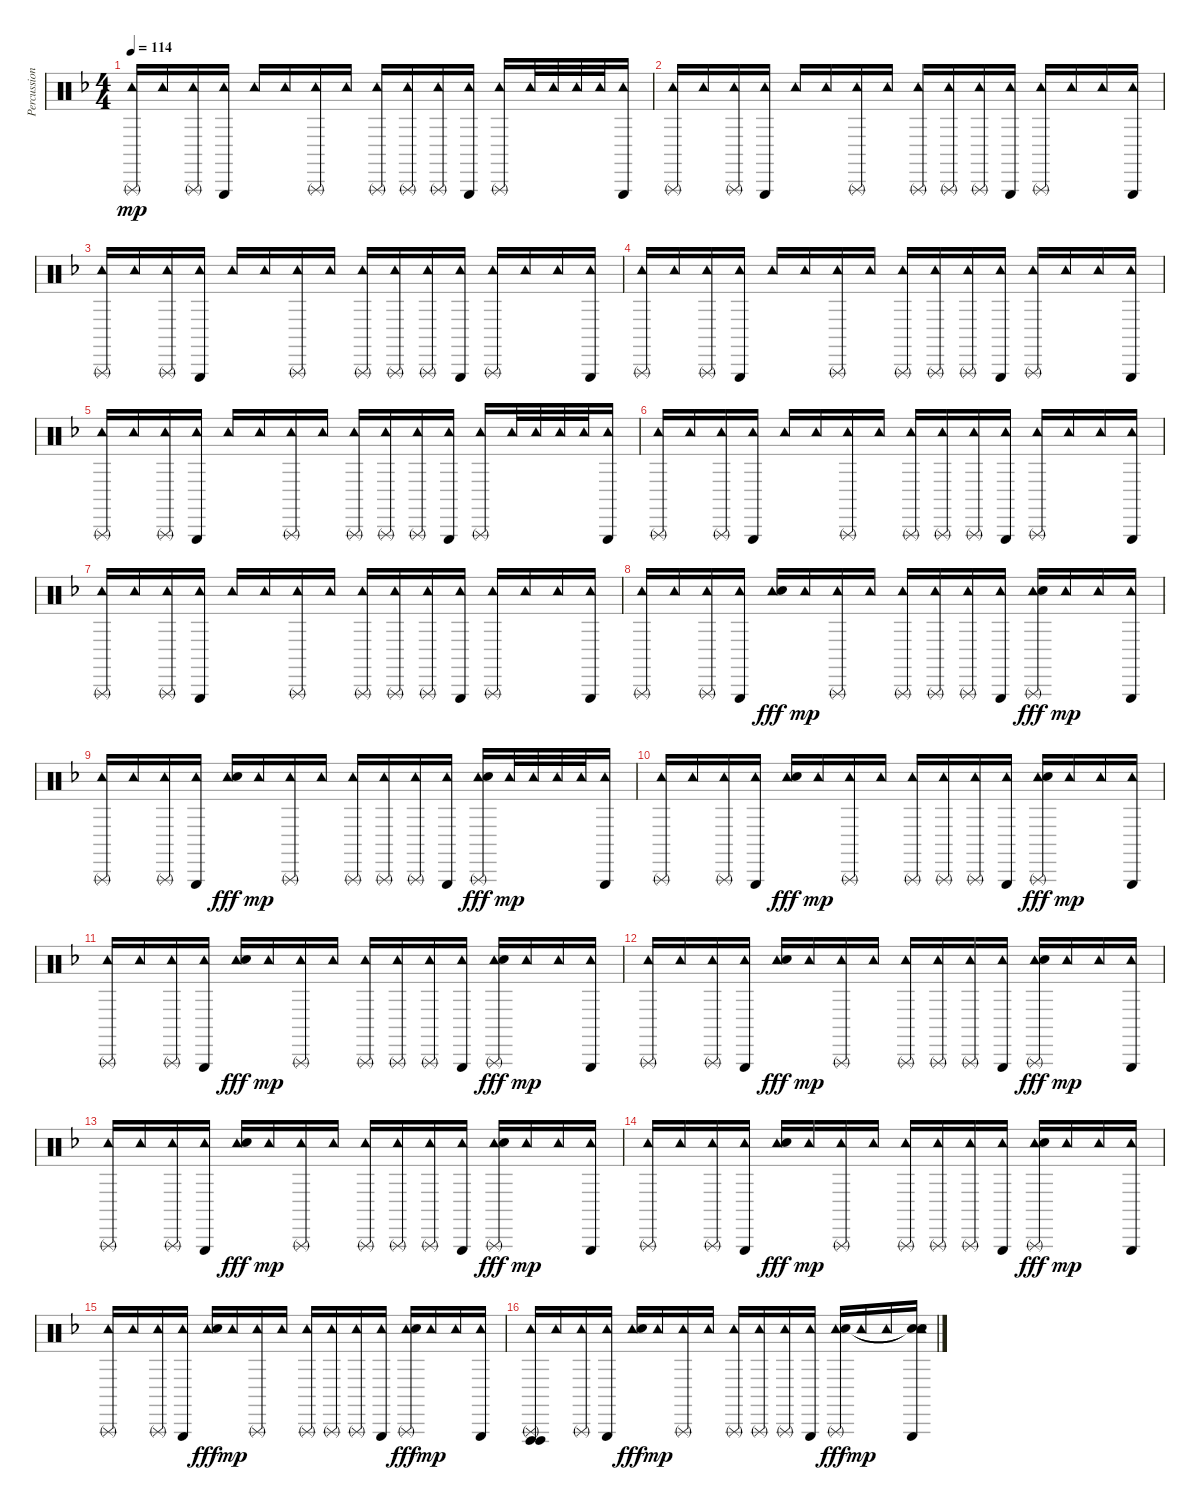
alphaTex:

\track ("Percussion" "Percussion") {instrument percussion}
\staff {score}
\articulation defaults
\ts (4 4)
\tempo 114
\clef neutral
\ks f
("Triangle (rnute)" "Tambourine (hit)").16{dy mp} "Tambourine (hit)".16 ("Triangle (rnute)" "Tambourine (hit)").16 ("Triangle (hit)" "Tambourine (hit)").16 "Tambourine (hit)".16 "Tambourine (hit)".16 ("Triangle (rnute)" "Tambourine (hit)").16 "Tambourine (hit)".16 ("Triangle (rnute)" "Tambourine (hit)").16 ("Triangle (rnute)" "Tambourine (hit)").16 ("Triangle (rnute)" "Tambourine (hit)").16 ("Triangle (hit)" "Tambourine (hit)").16 ("Triangle (rnute)" "Tambourine (hit)").16 "Tambourine (hit)".32 "Tambourine (hit)".32 "Tambourine (hit)".32 "Tambourine (hit)".32 ("Triangle (hit)" "Tambourine (hit)").16 |
("Triangle (rnute)" "Tambourine (hit)").16 "Tambourine (hit)".16 ("Triangle (rnute)" "Tambourine (hit)").16 ("Triangle (hit)" "Tambourine (hit)").16 "Tambourine (hit)".16 "Tambourine (hit)".16 ("Triangle (rnute)" "Tambourine (hit)").16 "Tambourine (hit)".16 ("Triangle (rnute)" "Tambourine (hit)").16 ("Triangle (rnute)" "Tambourine (hit)").16 ("Triangle (rnute)" "Tambourine (hit)").16 ("Triangle (hit)" "Tambourine (hit)").16 ("Triangle (rnute)" "Tambourine (hit)").16 "Tambourine (hit)".16 "Tambourine (hit)".16 ("Triangle (hit)" "Tambourine (hit)").16 |
("Triangle (rnute)" "Tambourine (hit)").16 "Tambourine (hit)".16 ("Triangle (rnute)" "Tambourine (hit)").16 ("Triangle (hit)" "Tambourine (hit)").16 "Tambourine (hit)".16 "Tambourine (hit)".16 ("Triangle (rnute)" "Tambourine (hit)").16 "Tambourine (hit)".16 ("Triangle (rnute)" "Tambourine (hit)").16 ("Triangle (rnute)" "Tambourine (hit)").16 ("Triangle (rnute)" "Tambourine (hit)").16 ("Triangle (hit)" "Tambourine (hit)").16 ("Triangle (rnute)" "Tambourine (hit)").16 "Tambourine (hit)".16 "Tambourine (hit)".16 ("Triangle (hit)" "Tambourine (hit)").16 |
("Triangle (rnute)" "Tambourine (hit)").16 "Tambourine (hit)".16 ("Triangle (rnute)" "Tambourine (hit)").16 ("Triangle (hit)" "Tambourine (hit)").16 "Tambourine (hit)".16 "Tambourine (hit)".16 ("Triangle (rnute)" "Tambourine (hit)").16 "Tambourine (hit)".16 ("Triangle (rnute)" "Tambourine (hit)").16 ("Triangle (rnute)" "Tambourine (hit)").16 ("Triangle (rnute)" "Tambourine (hit)").16 ("Triangle (hit)" "Tambourine (hit)").16 ("Triangle (rnute)" "Tambourine (hit)").16 "Tambourine (hit)".16 "Tambourine (hit)".16 ("Triangle (hit)" "Tambourine (hit)").16 |
("Triangle (rnute)" "Tambourine (hit)").16 "Tambourine (hit)".16 ("Triangle (rnute)" "Tambourine (hit)").16 ("Triangle (hit)" "Tambourine (hit)").16 "Tambourine (hit)".16 "Tambourine (hit)".16 ("Triangle (rnute)" "Tambourine (hit)").16 "Tambourine (hit)".16 ("Triangle (rnute)" "Tambourine (hit)").16 ("Triangle (rnute)" "Tambourine (hit)").16 ("Triangle (rnute)" "Tambourine (hit)").16 ("Triangle (hit)" "Tambourine (hit)").16 ("Triangle (rnute)" "Tambourine (hit)").16 "Tambourine (hit)".32 "Tambourine (hit)".32 "Tambourine (hit)".32 "Tambourine (hit)".32 ("Triangle (hit)" "Tambourine (hit)").16 |
("Triangle (rnute)" "Tambourine (hit)").16 "Tambourine (hit)".16 ("Triangle (rnute)" "Tambourine (hit)").16 ("Triangle (hit)" "Tambourine (hit)").16 "Tambourine (hit)".16 "Tambourine (hit)".16 ("Triangle (rnute)" "Tambourine (hit)").16 "Tambourine (hit)".16 ("Triangle (rnute)" "Tambourine (hit)").16 ("Triangle (rnute)" "Tambourine (hit)").16 ("Triangle (rnute)" "Tambourine (hit)").16 ("Triangle (hit)" "Tambourine (hit)").16 ("Triangle (rnute)" "Tambourine (hit)").16 "Tambourine (hit)".16 "Tambourine (hit)".16 ("Triangle (hit)" "Tambourine (hit)").16 |
("Triangle (rnute)" "Tambourine (hit)").16 "Tambourine (hit)".16 ("Triangle (rnute)" "Tambourine (hit)").16 ("Triangle (hit)" "Tambourine (hit)").16 "Tambourine (hit)".16 "Tambourine (hit)".16 ("Triangle (rnute)" "Tambourine (hit)").16 "Tambourine (hit)".16 ("Triangle (rnute)" "Tambourine (hit)").16 ("Triangle (rnute)" "Tambourine (hit)").16 ("Triangle (rnute)" "Tambourine (hit)").16 ("Triangle (hit)" "Tambourine (hit)").16 ("Triangle (rnute)" "Tambourine (hit)").16 "Tambourine (hit)".16 "Tambourine (hit)".16 ("Triangle (hit)" "Tambourine (hit)").16 |
("Triangle (rnute)" "Tambourine (hit)").16 "Tambourine (hit)".16 ("Triangle (rnute)" "Tambourine (hit)").16 ("Triangle (hit)" "Tambourine (hit)").16 ("Tambourine (hit)" "Hand Clap (hit)").16{dy fff} "Tambourine (hit)".16{dy mp} ("Triangle (rnute)" "Tambourine (hit)").16 "Tambourine (hit)".16 ("Triangle (rnute)" "Tambourine (hit)").16 ("Triangle (rnute)" "Tambourine (hit)").16 ("Triangle (rnute)" "Tambourine (hit)").16 ("Triangle (hit)" "Tambourine (hit)").16 ("Triangle (rnute)" "Tambourine (hit)" "Hand Clap (hit)").16{dy fff} "Tambourine (hit)".16{dy mp} "Tambourine (hit)".16 ("Triangle (hit)" "Tambourine (hit)").16 |
("Triangle (rnute)" "Tambourine (hit)").16 "Tambourine (hit)".16 ("Triangle (rnute)" "Tambourine (hit)").16 ("Triangle (hit)" "Tambourine (hit)").16 ("Tambourine (hit)" "Hand Clap (hit)").16{dy fff} "Tambourine (hit)".16{dy mp} ("Triangle (rnute)" "Tambourine (hit)").16 "Tambourine (hit)".16 ("Triangle (rnute)" "Tambourine (hit)").16 ("Triangle (rnute)" "Tambourine (hit)").16 ("Triangle (rnute)" "Tambourine (hit)").16 ("Triangle (hit)" "Tambourine (hit)").16 ("Triangle (rnute)" "Tambourine (hit)" "Hand Clap (hit)").16{dy fff} "Tambourine (hit)".32{dy mp} "Tambourine (hit)".32 "Tambourine (hit)".32 "Tambourine (hit)".32 ("Triangle (hit)" "Tambourine (hit)").16 |
("Triangle (rnute)" "Tambourine (hit)").16 "Tambourine (hit)".16 ("Triangle (rnute)" "Tambourine (hit)").16 ("Triangle (hit)" "Tambourine (hit)").16 ("Tambourine (hit)" "Hand Clap (hit)").16{dy fff} "Tambourine (hit)".16{dy mp} ("Triangle (rnute)" "Tambourine (hit)").16 "Tambourine (hit)".16 ("Triangle (rnute)" "Tambourine (hit)").16 ("Triangle (rnute)" "Tambourine (hit)").16 ("Triangle (rnute)" "Tambourine (hit)").16 ("Triangle (hit)" "Tambourine (hit)").16 ("Triangle (rnute)" "Tambourine (hit)" "Hand Clap (hit)").16{dy fff} "Tambourine (hit)".16{dy mp} "Tambourine (hit)".16 ("Triangle (hit)" "Tambourine (hit)").16 |
("Triangle (rnute)" "Tambourine (hit)").16 "Tambourine (hit)".16 ("Triangle (rnute)" "Tambourine (hit)").16 ("Triangle (hit)" "Tambourine (hit)").16 ("Tambourine (hit)" "Hand Clap (hit)").16{dy fff} "Tambourine (hit)".16{dy mp} ("Triangle (rnute)" "Tambourine (hit)").16 "Tambourine (hit)".16 ("Triangle (rnute)" "Tambourine (hit)").16 ("Triangle (rnute)" "Tambourine (hit)").16 ("Triangle (rnute)" "Tambourine (hit)").16 ("Triangle (hit)" "Tambourine (hit)").16 ("Triangle (rnute)" "Tambourine (hit)" "Hand Clap (hit)").16{dy fff} "Tambourine (hit)".16{dy mp} "Tambourine (hit)".16 ("Triangle (hit)" "Tambourine (hit)").16 |
("Triangle (rnute)" "Tambourine (hit)").16 "Tambourine (hit)".16 ("Triangle (rnute)" "Tambourine (hit)").16 ("Triangle (hit)" "Tambourine (hit)").16 ("Tambourine (hit)" "Hand Clap (hit)").16{dy fff} "Tambourine (hit)".16{dy mp} ("Triangle (rnute)" "Tambourine (hit)").16 "Tambourine (hit)".16 ("Triangle (rnute)" "Tambourine (hit)").16 ("Triangle (rnute)" "Tambourine (hit)").16 ("Triangle (rnute)" "Tambourine (hit)").16 ("Triangle (hit)" "Tambourine (hit)").16 ("Triangle (rnute)" "Tambourine (hit)" "Hand Clap (hit)").16{dy fff} "Tambourine (hit)".16{dy mp} "Tambourine (hit)".16 ("Triangle (hit)" "Tambourine (hit)").16 |
("Triangle (rnute)" "Tambourine (hit)").16 "Tambourine (hit)".16 ("Triangle (rnute)" "Tambourine (hit)").16 ("Triangle (hit)" "Tambourine (hit)").16 ("Tambourine (hit)" "Hand Clap (hit)").16{dy fff} "Tambourine (hit)".16{dy mp} ("Triangle (rnute)" "Tambourine (hit)").16 "Tambourine (hit)".16 ("Triangle (rnute)" "Tambourine (hit)").16 ("Triangle (rnute)" "Tambourine (hit)").16 ("Triangle (rnute)" "Tambourine (hit)").16 ("Triangle (hit)" "Tambourine (hit)").16 ("Triangle (rnute)" "Tambourine (hit)" "Hand Clap (hit)").16{dy fff} "Tambourine (hit)".16{dy mp} "Tambourine (hit)".16 ("Triangle (hit)" "Tambourine (hit)").16 |
("Triangle (rnute)" "Tambourine (hit)").16 "Tambourine (hit)".16 ("Triangle (rnute)" "Tambourine (hit)").16 ("Triangle (hit)" "Tambourine (hit)").16 ("Tambourine (hit)" "Hand Clap (hit)").16{dy fff} "Tambourine (hit)".16{dy mp} ("Triangle (rnute)" "Tambourine (hit)").16 "Tambourine (hit)".16 ("Triangle (rnute)" "Tambourine (hit)").16 ("Triangle (rnute)" "Tambourine (hit)").16 ("Triangle (rnute)" "Tambourine (hit)").16 ("Triangle (hit)" "Tambourine (hit)").16 ("Triangle (rnute)" "Tambourine (hit)" "Hand Clap (hit)").16{dy fff} "Tambourine (hit)".16{dy mp} "Tambourine (hit)".16 ("Triangle (hit)" "Tambourine (hit)").16 |
("Triangle (rnute)" "Tambourine (hit)").16 "Tambourine (hit)".16 ("Triangle (rnute)" "Tambourine (hit)").16 ("Triangle (hit)" "Tambourine (hit)").16 ("Tambourine (hit)" "Hand Clap (hit)").16{dy fff} "Tambourine (hit)".16{dy mp} ("Triangle (rnute)" "Tambourine (hit)").16 "Tambourine (hit)".16 ("Triangle (rnute)" "Tambourine (hit)").16 ("Triangle (rnute)" "Tambourine (hit)").16 ("Triangle (rnute)" "Tambourine (hit)").16 ("Triangle (hit)" "Tambourine (hit)").16 ("Triangle (rnute)" "Tambourine (hit)" "Hand Clap (hit)").16{dy fff} "Tambourine (hit)".16{dy mp} "Tambourine (hit)".16 ("Triangle (hit)" "Tambourine (hit)").16 |
("Triangle (rnute)" "Vibraslap (hit)" "Vibraslap (hit)" "Tambourine (hit)").16 "Tambourine (hit)".16 ("Triangle (rnute)" "Tambourine (hit)").16 ("Triangle (hit)" "Tambourine (hit)").16 ("Tambourine (hit)" "Hand Clap (hit)").16{dy fff} "Tambourine (hit)".16{dy mp} ("Triangle (rnute)" "Tambourine (hit)").16 "Tambourine (hit)".16 ("Triangle (rnute)" "Tambourine (hit)").16 ("Triangle (rnute)" "Tambourine (hit)").16 ("Triangle (rnute)" "Tambourine (hit)").16 ("Triangle (hit)" "Tambourine (hit)").16 ("Triangle (rnute)" "Tambourine (hit)" "Hand Clap (hit)").16{dy fff} "Tambourine (hit)".16{dy mp} "Tambourine (hit)".16 ("Triangle (hit)" "Snare (hit)"{t} "Snare (hit)"{t} "Tambourine (hit)").16
